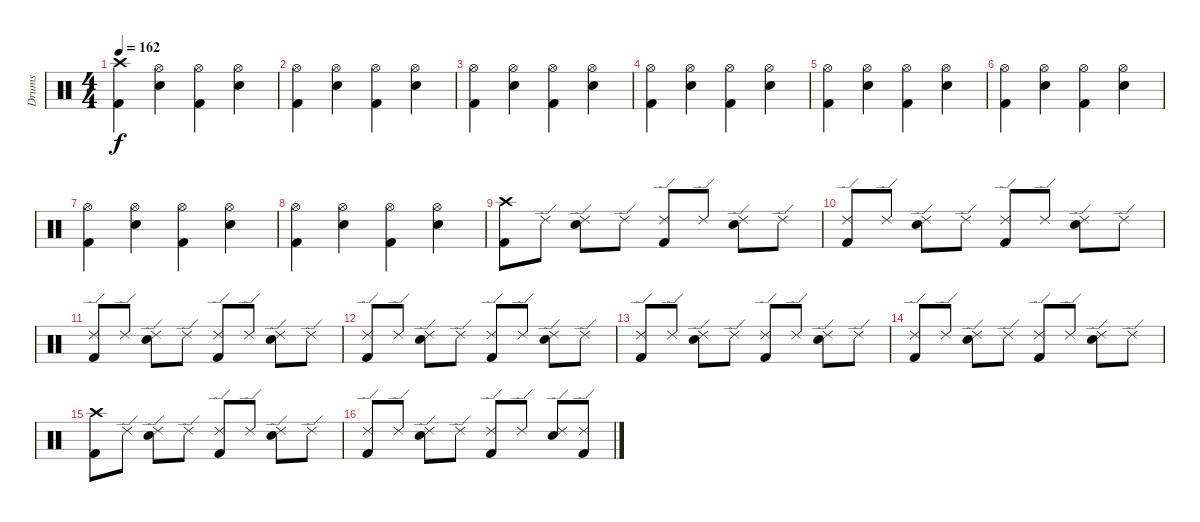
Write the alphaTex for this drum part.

\track ("Drums" "Drums") {instrument percussion}
\staff {score}
\articulation defaults
\ts (4 4)
\tempo 162
\clef neutral
\ks c
("Crash high (hit)" "Kick (hit) 2").4{dy f} ("Hi-Hat (open)" "Snare (hit) 2").4 ("Hi-Hat (open)" "Kick (hit) 2").4 ("Hi-Hat (open)" "Snare (hit) 2").4 |
("Hi-Hat (open)" "Kick (hit) 2").4 ("Hi-Hat (open)" "Snare (hit) 2").4 ("Hi-Hat (open)" "Kick (hit) 2").4 ("Hi-Hat (open)" "Snare (hit) 2").4 |
("Hi-Hat (open)" "Kick (hit) 2").4 ("Hi-Hat (open)" "Snare (hit) 2").4 ("Hi-Hat (open)" "Kick (hit) 2").4 ("Hi-Hat (open)" "Snare (hit) 2").4 |
("Hi-Hat (open)" "Kick (hit) 2").4 ("Hi-Hat (open)" "Snare (hit) 2").4 ("Hi-Hat (open)" "Kick (hit) 2").4 ("Hi-Hat (open)" "Snare (hit) 2").4 |
("Hi-Hat (open)" "Kick (hit) 2").4 ("Hi-Hat (open)" "Snare (hit) 2").4 ("Hi-Hat (open)" "Kick (hit) 2").4 ("Hi-Hat (open)" "Snare (hit) 2").4 |
("Hi-Hat (open)" "Kick (hit) 2").4 ("Hi-Hat (open)" "Snare (hit) 2").4 ("Hi-Hat (open)" "Kick (hit) 2").4 ("Hi-Hat (open)" "Snare (hit) 2").4 |
("Hi-Hat (open)" "Kick (hit) 2").4 ("Hi-Hat (open)" "Snare (hit) 2").4 ("Hi-Hat (open)" "Kick (hit) 2").4 ("Hi-Hat (open)" "Snare (hit) 2").4 |
("Hi-Hat (open)" "Kick (hit) 2").4 ("Hi-Hat (open)" "Snare (hit) 2").4 ("Hi-Hat (open)" "Kick (hit) 2").4 ("Hi-Hat (open)" "Snare (hit) 2").4 |
("Crash high (hit)" "Kick (hit) 2").8 "Ride (edge) 2".8 ("Ride (edge) 2" "Snare (hit) 2").8 "Ride (edge) 2".8 ("Ride (edge) 2" "Kick (hit) 2").8 "Ride (edge) 2".8 ("Ride (edge) 2" "Snare (hit) 2").8 "Ride (edge) 2".8 |
("Ride (edge) 2" "Kick (hit) 2").8 "Ride (edge) 2".8 ("Ride (edge) 2" "Snare (hit) 2").8 "Ride (edge) 2".8 ("Ride (edge) 2" "Kick (hit) 2").8 "Ride (edge) 2".8 ("Ride (edge) 2" "Snare (hit) 2").8 "Ride (edge) 2".8 |
("Ride (edge) 2" "Kick (hit) 2").8 "Ride (edge) 2".8 ("Ride (edge) 2" "Snare (hit) 2").8 "Ride (edge) 2".8 ("Ride (edge) 2" "Kick (hit) 2").8 "Ride (edge) 2".8 ("Ride (edge) 2" "Snare (hit) 2").8 "Ride (edge) 2".8 |
("Ride (edge) 2" "Kick (hit) 2").8 "Ride (edge) 2".8 ("Ride (edge) 2" "Snare (hit) 2").8 "Ride (edge) 2".8 ("Ride (edge) 2" "Kick (hit) 2").8 "Ride (edge) 2".8 ("Ride (edge) 2" "Snare (hit) 2").8 "Ride (edge) 2".8 |
("Ride (edge) 2" "Kick (hit) 2").8 "Ride (edge) 2".8 ("Ride (edge) 2" "Snare (hit) 2").8 "Ride (edge) 2".8 ("Ride (edge) 2" "Kick (hit) 2").8 "Ride (edge) 2".8 ("Ride (edge) 2" "Snare (hit) 2").8 "Ride (edge) 2".8 |
("Ride (edge) 2" "Kick (hit) 2").8 "Ride (edge) 2".8 ("Ride (edge) 2" "Snare (hit) 2").8 "Ride (edge) 2".8 ("Ride (edge) 2" "Kick (hit) 2").8 "Ride (edge) 2".8 ("Ride (edge) 2" "Snare (hit) 2").8 "Ride (edge) 2".8 |
("Crash high (hit)" "Kick (hit) 2").8 "Ride (edge) 2".8 ("Ride (edge) 2" "Snare (hit) 2").8 "Ride (edge) 2".8 ("Ride (edge) 2" "Kick (hit) 2").8 "Ride (edge) 2".8 ("Ride (edge) 2" "Snare (hit) 2").8 "Ride (edge) 2".8 |
("Ride (edge) 2" "Kick (hit) 2").8 "Ride (edge) 2".8 ("Ride (edge) 2" "Snare (hit) 2").8 "Ride (edge) 2".8 ("Ride (edge) 2" "Kick (hit) 2").8 "Ride (edge) 2".8 ("Ride (edge) 2" "Snare (hit) 2").8 ("Ride (edge) 2" "Kick (hit) 2").8
